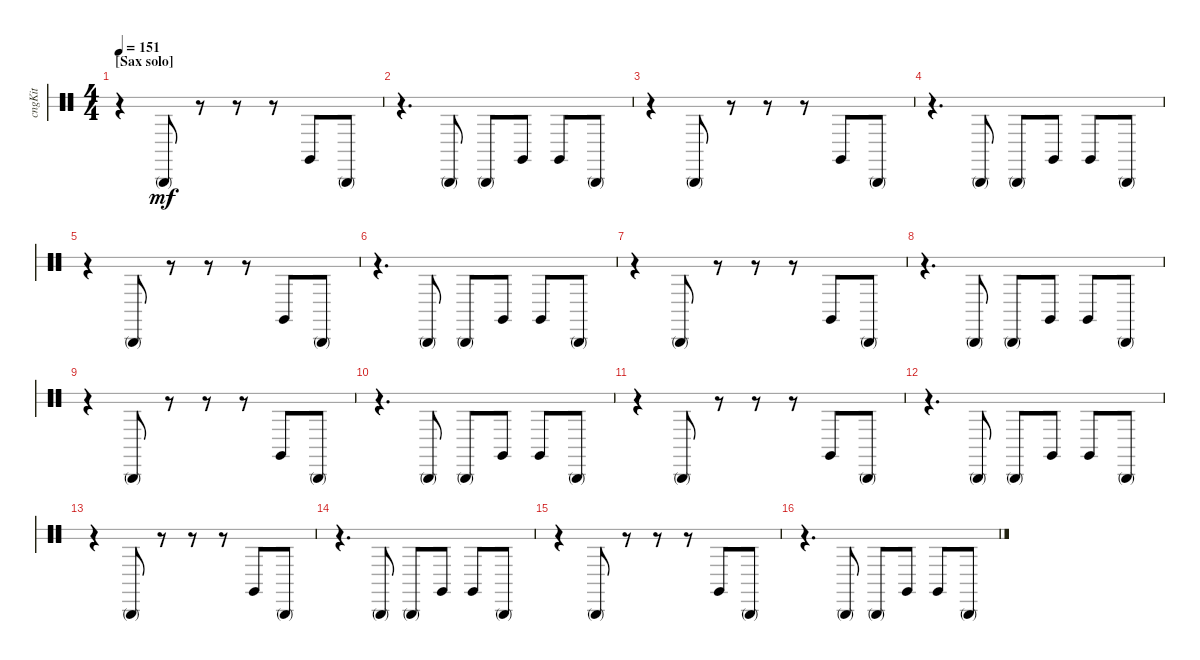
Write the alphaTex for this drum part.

\bracketExtendMode groupsimilarinstruments
\track ("Congas" "cngKit") {instrument percussion}
\staff {score 2}
\articulation defaults
\ts (4 4)
\section ("" "[Sax solo]")
\tempo 151
\clef neutral
\ks aminor
r.4{dy mf} "Conga high (mute)".8 r.8 r.8 r.8 "Conga high (hit)".8 "Conga high (mute)".8 |
r.4{d} "Conga high (mute)".8 "Conga high (mute)".8 "Conga high (hit)".8 "Conga high (hit)".8 "Conga high (mute)".8 |
r.4 "Conga high (mute)".8 r.8 r.8 r.8 "Conga high (hit)".8 "Conga high (mute)".8 |
r.4{d} "Conga high (mute)".8 "Conga high (mute)".8 "Conga high (hit)".8 "Conga high (hit)".8 "Conga high (mute)".8 |
r.4 "Conga high (mute)".8 r.8 r.8 r.8 "Conga high (hit)".8 "Conga high (mute)".8 |
r.4{d} "Conga high (mute)".8 "Conga high (mute)".8 "Conga high (hit)".8 "Conga high (hit)".8 "Conga high (mute)".8 |
r.4 "Conga high (mute)".8 r.8 r.8 r.8 "Conga high (hit)".8 "Conga high (mute)".8 |
r.4{d} "Conga high (mute)".8 "Conga high (mute)".8 "Conga high (hit)".8 "Conga high (hit)".8 "Conga high (mute)".8 |
r.4 "Conga high (mute)".8 r.8 r.8 r.8 "Conga high (hit)".8 "Conga high (mute)".8 |
r.4{d} "Conga high (mute)".8 "Conga high (mute)".8 "Conga high (hit)".8 "Conga high (hit)".8 "Conga high (mute)".8 |
r.4 "Conga high (mute)".8 r.8 r.8 r.8 "Conga high (hit)".8 "Conga high (mute)".8 |
r.4{d} "Conga high (mute)".8 "Conga high (mute)".8 "Conga high (hit)".8 "Conga high (hit)".8 "Conga high (mute)".8 |
r.4 "Conga high (mute)".8 r.8 r.8 r.8 "Conga high (hit)".8 "Conga high (mute)".8 |
r.4{d} "Conga high (mute)".8 "Conga high (mute)".8 "Conga high (hit)".8 "Conga high (hit)".8 "Conga high (mute)".8 |
r.4 "Conga high (mute)".8 r.8 r.8 r.8 "Conga high (hit)".8 "Conga high (mute)".8 |
r.4{d} "Conga high (mute)".8 "Conga high (mute)".8 "Conga high (hit)".8 "Conga high (hit)".8 "Conga high (mute)".8
